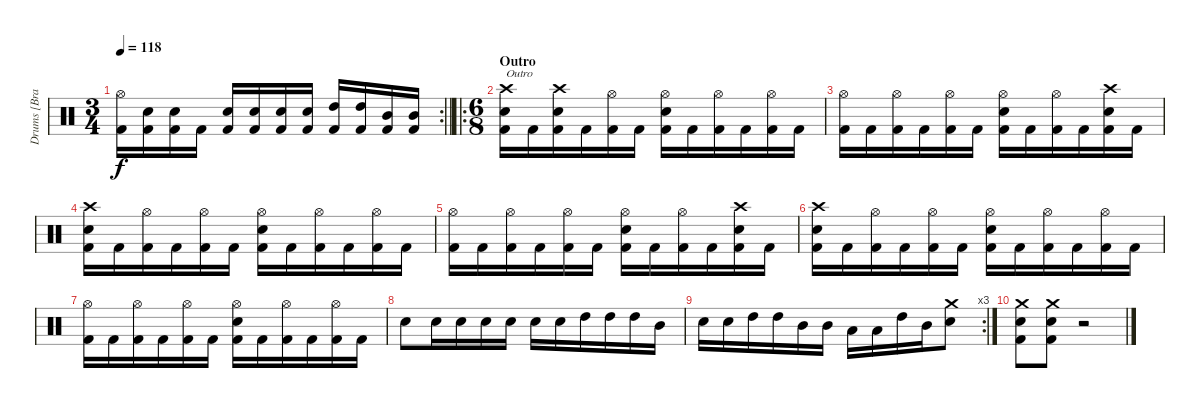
\track ("Drums [Brann Dailor]" "Drums [Bra") {instrument percussion}
\staff {score}
\articulation defaults
\rc 2
\ts (3 4)
\tempo 118
\clef neutral
\barLineRight lightlight
\ks c
("Hi-Hat (open)" "Kick (hit) 2").16{dy f} ("Electric Snare (hit)" "Kick (hit) 2").16 ("Electric Snare (hit)" "Kick (hit) 2").16 "Kick (hit) 2".16 ("Electric Snare (hit)" "Kick (hit) 2").16 ("Electric Snare (hit)" "Kick (hit) 2").16 ("Electric Snare (hit)" "Kick (hit) 2").16 ("Electric Snare (hit)" "Kick (hit) 2").16 ("High Tom (hit)" "Kick (hit) 2").16 ("High Tom (hit)" "Kick (hit) 2").16 ("Mid Tom (hit)" "Kick (hit) 2").16 ("Mid Tom (hit)" "Kick (hit) 2").16 |
\ro
\ts (6 8)
\section ("" "Outro")
("Crash high (hit)" "Electric Snare (hit)" "Kick (hit) 2").16{txt "Outro"} "Kick (hit) 2".16 ("Crash high (hit)" "Electric Snare (hit)" "Kick (hit) 2").16 "Kick (hit) 2".16 ("Hi-Hat (open)" "Kick (hit) 2").16 "Kick (hit) 2".16 ("Hi-Hat (open)" "Electric Snare (hit)" "Kick (hit) 2").16 "Kick (hit) 2".16 ("Hi-Hat (open)" "Kick (hit) 2").16 "Kick (hit) 2".16 ("Hi-Hat (open)" "Kick (hit) 2").16 "Kick (hit) 2".16 |
("Hi-Hat (open)" "Kick (hit) 2").16 "Kick (hit) 2".16 ("Hi-Hat (open)" "Kick (hit) 2").16 "Kick (hit) 2".16 ("Hi-Hat (open)" "Kick (hit) 2").16 "Kick (hit) 2".16 ("Hi-Hat (open)" "Electric Snare (hit)" "Kick (hit) 2").16 "Kick (hit) 2".16 ("Hi-Hat (open)" "Kick (hit) 2").16 "Kick (hit) 2".16 ("Crash high (hit)" "Electric Snare (hit)" "Kick (hit) 2").16 "Kick (hit) 2".16 |
("Crash high (hit)" "Electric Snare (hit)" "Kick (hit) 2").16 "Kick (hit) 2".16 ("Hi-Hat (open)" "Kick (hit) 2").16 "Kick (hit) 2".16 ("Hi-Hat (open)" "Kick (hit) 2").16 "Kick (hit) 2".16 ("Hi-Hat (open)" "Electric Snare (hit)" "Kick (hit) 2").16 "Kick (hit) 2".16 ("Hi-Hat (open)" "Kick (hit) 2").16 "Kick (hit) 2".16 ("Hi-Hat (open)" "Kick (hit) 2").16 "Kick (hit) 2".16 |
("Hi-Hat (open)" "Kick (hit) 2").16 "Kick (hit) 2".16 ("Hi-Hat (open)" "Kick (hit) 2").16 "Kick (hit) 2".16 ("Hi-Hat (open)" "Kick (hit) 2").16 "Kick (hit) 2".16 ("Hi-Hat (open)" "Electric Snare (hit)" "Kick (hit) 2").16 "Kick (hit) 2".16 ("Hi-Hat (open)" "Kick (hit) 2").16 "Kick (hit) 2".16 ("Crash high (hit)" "Electric Snare (hit)" "Kick (hit) 2").16 "Kick (hit) 2".16 |
("Crash high (hit)" "Electric Snare (hit)" "Kick (hit) 2").16 "Kick (hit) 2".16 ("Hi-Hat (open)" "Kick (hit) 2").16 "Kick (hit) 2".16 ("Hi-Hat (open)" "Kick (hit) 2").16 "Kick (hit) 2".16 ("Hi-Hat (open)" "Electric Snare (hit)" "Kick (hit) 2").16 "Kick (hit) 2".16 ("Hi-Hat (open)" "Kick (hit) 2").16 "Kick (hit) 2".16 ("Hi-Hat (open)" "Kick (hit) 2").16 "Kick (hit) 2".16 |
("Hi-Hat (open)" "Kick (hit) 2").16 "Kick (hit) 2".16 ("Hi-Hat (open)" "Kick (hit) 2").16 "Kick (hit) 2".16 ("Hi-Hat (open)" "Kick (hit) 2").16 "Kick (hit) 2".16 ("Hi-Hat (open)" "Electric Snare (hit)" "Kick (hit) 2").16 "Kick (hit) 2".16 ("Hi-Hat (open)" "Kick (hit) 2").16 "Kick (hit) 2".16 ("Hi-Hat (open)" "Kick (hit) 2").16 "Kick (hit) 2".16 |
"Electric Snare (hit)".8 "Electric Snare (hit)".16 "Electric Snare (hit)".16 "Electric Snare (hit)".16 "Electric Snare (hit)".16 "Electric Snare (hit)".16 "Electric Snare (hit)".16 "High Tom (hit)".16 "High Tom (hit)".16 "High Tom (hit)".16 "Mid Tom (hit)".16 |
\rc 3 "Electric Snare (hit)".16 "Electric Snare (hit)".16 "High Tom (hit)".16 "High Tom (hit)".16 "Mid Tom (hit)".16 "Mid Tom (hit)".16 "Low Tom (hit)".16 "Low Tom (hit)".16 "High Tom (hit)".16 "Mid Tom (hit)".16
("Crash medium (hit)" "Electric Snare (hit)").8 |
("Crash medium (hit)" "Electric Snare (hit)" "Kick (hit) 2").8 ("Crash medium (hit)" "Electric Snare (hit)" "Kick (hit) 2").8 r.2
